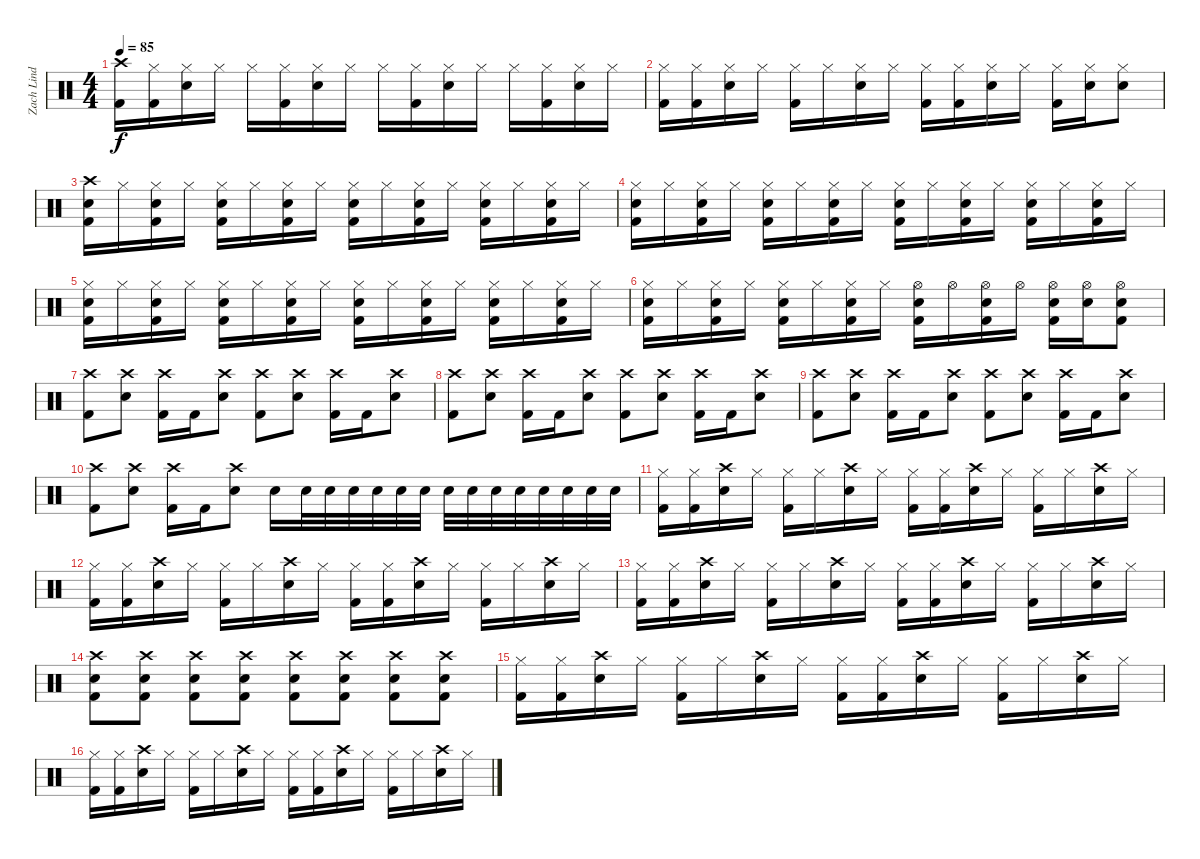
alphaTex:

\track ("Zach Lind" "Zach Lind") {instrument percussion}
\staff {score}
\articulation defaults
\ts (4 4)
\tempo 85
\clef neutral
\ks c
("Crash high (hit)" "Kick (hit) 2").16{dy f} ("Hi-Hat (closed)" "Kick (hit) 2").16 ("Hi-Hat (closed)" "Snare (hit) 2").16 "Hi-Hat (closed)".16 "Hi-Hat (closed)".16 ("Hi-Hat (closed)" "Kick (hit) 2").16 ("Hi-Hat (closed)" "Snare (hit) 2").16 "Hi-Hat (closed)".16 "Hi-Hat (closed)".16 ("Hi-Hat (closed)" "Kick (hit) 2").16 ("Hi-Hat (closed)" "Snare (hit) 2").16 "Hi-Hat (closed)".16 "Hi-Hat (closed)".16 ("Hi-Hat (closed)" "Kick (hit) 2").16 ("Hi-Hat (closed)" "Snare (hit) 2").16 "Hi-Hat (closed)".16 |
("Hi-Hat (closed)" "Kick (hit) 2").16 ("Hi-Hat (closed)" "Kick (hit) 2").16 ("Hi-Hat (closed)" "Snare (hit) 2").16 "Hi-Hat (closed)".16 ("Hi-Hat (closed)" "Kick (hit) 2").16 "Hi-Hat (closed)".16 ("Hi-Hat (closed)" "Snare (hit) 2").16 "Hi-Hat (closed)".16 ("Hi-Hat (closed)" "Kick (hit) 2").16 ("Hi-Hat (closed)" "Kick (hit) 2").16 ("Hi-Hat (closed)" "Snare (hit) 2").16 "Hi-Hat (closed)".16 ("Hi-Hat (closed)" "Kick (hit) 2").16 ("Hi-Hat (closed)" "Snare (hit) 2").16 ("Hi-Hat (closed)" "Snare (hit) 2").8 |
("Crash high (hit)" "Snare (hit) 2" "Kick (hit) 2").16 "Hi-Hat (closed)".16 ("Hi-Hat (closed)" "Snare (hit) 2" "Kick (hit) 2").16 "Hi-Hat (closed)".16 ("Hi-Hat (closed)" "Snare (hit) 2" "Kick (hit) 2").16 "Hi-Hat (closed)".16 ("Hi-Hat (closed)" "Snare (hit) 2" "Kick (hit) 2").16 "Hi-Hat (closed)".16 ("Hi-Hat (closed)" "Snare (hit) 2" "Kick (hit) 2").16 "Hi-Hat (closed)".16 ("Hi-Hat (closed)" "Snare (hit) 2" "Kick (hit) 2").16 "Hi-Hat (closed)".16 ("Hi-Hat (closed)" "Snare (hit) 2" "Kick (hit) 2").16 "Hi-Hat (closed)".16 ("Hi-Hat (closed)" "Snare (hit) 2" "Kick (hit) 2").16 "Hi-Hat (closed)".16 |
("Hi-Hat (closed)" "Snare (hit) 2" "Kick (hit) 2").16 "Hi-Hat (closed)".16 ("Hi-Hat (closed)" "Snare (hit) 2" "Kick (hit) 2").16 "Hi-Hat (closed)".16 ("Hi-Hat (closed)" "Snare (hit) 2" "Kick (hit) 2").16 "Hi-Hat (closed)".16 ("Hi-Hat (closed)" "Snare (hit) 2" "Kick (hit) 2").16 "Hi-Hat (closed)".16 ("Hi-Hat (closed)" "Snare (hit) 2" "Kick (hit) 2").16 "Hi-Hat (closed)".16 ("Hi-Hat (closed)" "Snare (hit) 2" "Kick (hit) 2").16 "Hi-Hat (closed)".16 ("Hi-Hat (closed)" "Snare (hit) 2" "Kick (hit) 2").16 "Hi-Hat (closed)".16 ("Hi-Hat (closed)" "Snare (hit) 2" "Kick (hit) 2").16 "Hi-Hat (closed)".16 |
("Hi-Hat (closed)" "Snare (hit) 2" "Kick (hit) 2").16 "Hi-Hat (closed)".16 ("Hi-Hat (closed)" "Snare (hit) 2" "Kick (hit) 2").16 "Hi-Hat (closed)".16 ("Hi-Hat (closed)" "Snare (hit) 2" "Kick (hit) 2").16 "Hi-Hat (closed)".16 ("Hi-Hat (closed)" "Snare (hit) 2" "Kick (hit) 2").16 "Hi-Hat (closed)".16 ("Hi-Hat (closed)" "Snare (hit) 2" "Kick (hit) 2").16 "Hi-Hat (closed)".16 ("Hi-Hat (closed)" "Snare (hit) 2" "Kick (hit) 2").16 "Hi-Hat (closed)".16 ("Hi-Hat (closed)" "Snare (hit) 2" "Kick (hit) 2").16 "Hi-Hat (closed)".16 ("Hi-Hat (closed)" "Snare (hit) 2" "Kick (hit) 2").16 "Hi-Hat (closed)".16 |
("Hi-Hat (closed)" "Snare (hit) 2" "Kick (hit) 2").16 "Hi-Hat (closed)".16 ("Hi-Hat (closed)" "Snare (hit) 2" "Kick (hit) 2").16 "Hi-Hat (closed)".16 ("Hi-Hat (closed)" "Snare (hit) 2" "Kick (hit) 2").16 "Hi-Hat (closed)".16 ("Hi-Hat (closed)" "Snare (hit) 2" "Kick (hit) 2").16 "Hi-Hat (closed)".16 ("Hi-Hat (open)" "Snare (hit) 2" "Kick (hit) 2").16 "Hi-Hat (open)".16 ("Hi-Hat (open)" "Snare (hit) 2" "Kick (hit) 2").16 "Hi-Hat (open)".16 ("Hi-Hat (open)" "Snare (hit) 2" "Kick (hit) 2").16 ("Hi-Hat (open)" "Snare (hit) 2").16 ("Hi-Hat (open)" "Snare (hit) 2" "Kick (hit) 2").8 |
("Crash high (hit)" "Kick (hit) 2").8 ("Crash high (hit)" "Snare (hit) 2").8 ("Crash high (hit)" "Kick (hit) 2").16 "Kick (hit) 2".16 ("Crash high (hit)" "Snare (hit) 2").8 ("Crash high (hit)" "Kick (hit) 2").8 ("Crash high (hit)" "Snare (hit) 2").8 ("Crash high (hit)" "Kick (hit) 2").16 "Kick (hit) 2".16 ("Crash high (hit)" "Snare (hit) 2").8 |
("Crash high (hit)" "Kick (hit) 2").8 ("Crash high (hit)" "Snare (hit) 2").8 ("Crash high (hit)" "Kick (hit) 2").16 "Kick (hit) 2".16 ("Crash high (hit)" "Snare (hit) 2").8 ("Crash high (hit)" "Kick (hit) 2").8 ("Crash high (hit)" "Snare (hit) 2").8 ("Crash high (hit)" "Kick (hit) 2").16 "Kick (hit) 2".16 ("Crash high (hit)" "Snare (hit) 2").8 |
("Crash high (hit)" "Kick (hit) 2").8 ("Crash high (hit)" "Snare (hit) 2").8 ("Crash high (hit)" "Kick (hit) 2").16 "Kick (hit) 2".16 ("Crash high (hit)" "Snare (hit) 2").8 ("Crash high (hit)" "Kick (hit) 2").8 ("Crash high (hit)" "Snare (hit) 2").8 ("Crash high (hit)" "Kick (hit) 2").16 "Kick (hit) 2".16 ("Crash high (hit)" "Snare (hit) 2").8 |
("Crash high (hit)" "Kick (hit) 2").8 ("Crash high (hit)" "Snare (hit) 2").8 ("Crash high (hit)" "Kick (hit) 2").16 "Kick (hit) 2".16 ("Crash high (hit)" "Snare (hit) 2").8 "Snare (hit) 2".16 "Snare (hit) 2".32 "Snare (hit) 2".32 "Snare (hit) 2".32 "Snare (hit) 2".32 "Snare (hit) 2".32 "Snare (hit) 2".32 "Snare (hit) 2".32 "Snare (hit) 2".32 "Snare (hit) 2".32 "Snare (hit) 2".32 "Snare (hit) 2".32 "Snare (hit) 2".32 "Snare (hit) 2".32 "Snare (hit) 2".32 |
("Hi-Hat (closed)" "Kick (hit) 2").16 ("Hi-Hat (closed)" "Kick (hit) 2").16 ("Crash high (hit)" "Snare (hit) 2").16 "Hi-Hat (closed)".16 ("Hi-Hat (closed)" "Kick (hit) 2").16 "Hi-Hat (closed)".16 ("Crash high (hit)" "Snare (hit) 2").16 "Hi-Hat (closed)".16 ("Hi-Hat (closed)" "Kick (hit) 2").16 ("Hi-Hat (closed)" "Kick (hit) 2").16 ("Crash high (hit)" "Snare (hit) 2").16 "Hi-Hat (closed)".16 ("Hi-Hat (closed)" "Kick (hit) 2").16 "Hi-Hat (closed)".16 ("Crash high (hit)" "Snare (hit) 2").16 "Hi-Hat (closed)".16 |
("Hi-Hat (closed)" "Kick (hit) 2").16 ("Hi-Hat (closed)" "Kick (hit) 2").16 ("Crash high (hit)" "Snare (hit) 2").16 "Hi-Hat (closed)".16 ("Hi-Hat (closed)" "Kick (hit) 2").16 "Hi-Hat (closed)".16 ("Crash high (hit)" "Snare (hit) 2").16 "Hi-Hat (closed)".16 ("Hi-Hat (closed)" "Kick (hit) 2").16 ("Hi-Hat (closed)" "Kick (hit) 2").16 ("Crash high (hit)" "Snare (hit) 2").16 "Hi-Hat (closed)".16 ("Hi-Hat (closed)" "Kick (hit) 2").16 "Hi-Hat (closed)".16 ("Crash high (hit)" "Snare (hit) 2").16 "Hi-Hat (closed)".16 |
("Hi-Hat (closed)" "Kick (hit) 2").16 ("Hi-Hat (closed)" "Kick (hit) 2").16 ("Crash high (hit)" "Snare (hit) 2").16 "Hi-Hat (closed)".16 ("Hi-Hat (closed)" "Kick (hit) 2").16 "Hi-Hat (closed)".16 ("Crash high (hit)" "Snare (hit) 2").16 "Hi-Hat (closed)".16 ("Hi-Hat (closed)" "Kick (hit) 2").16 ("Hi-Hat (closed)" "Kick (hit) 2").16 ("Crash high (hit)" "Snare (hit) 2").16 "Hi-Hat (closed)".16 ("Hi-Hat (closed)" "Kick (hit) 2").16 "Hi-Hat (closed)".16 ("Crash high (hit)" "Snare (hit) 2").16 "Hi-Hat (closed)".16 |
("Crash high (hit)" "Snare (hit) 2" "Kick (hit) 2").8 ("Crash high (hit)" "Snare (hit) 2" "Kick (hit) 2").8 ("Crash high (hit)" "Snare (hit) 2" "Kick (hit) 2").8 ("Crash high (hit)" "Snare (hit) 2" "Kick (hit) 2").8 ("Crash high (hit)" "Snare (hit) 2" "Kick (hit) 2").8 ("Crash high (hit)" "Snare (hit) 2" "Kick (hit) 2").8 ("Crash high (hit)" "Snare (hit) 2" "Kick (hit) 2").8 ("Crash high (hit)" "Snare (hit) 2" "Kick (hit) 2").8 |
("Hi-Hat (closed)" "Kick (hit) 2").16 ("Hi-Hat (closed)" "Kick (hit) 2").16 ("Crash high (hit)" "Snare (hit) 2").16 "Hi-Hat (closed)".16 ("Hi-Hat (closed)" "Kick (hit) 2").16 "Hi-Hat (closed)".16 ("Crash high (hit)" "Snare (hit) 2").16 "Hi-Hat (closed)".16 ("Hi-Hat (closed)" "Kick (hit) 2").16 ("Hi-Hat (closed)" "Kick (hit) 2").16 ("Crash high (hit)" "Snare (hit) 2").16 "Hi-Hat (closed)".16 ("Hi-Hat (closed)" "Kick (hit) 2").16 "Hi-Hat (closed)".16 ("Crash high (hit)" "Snare (hit) 2").16 "Hi-Hat (closed)".16 |
("Hi-Hat (closed)" "Kick (hit) 2").16 ("Hi-Hat (closed)" "Kick (hit) 2").16 ("Crash high (hit)" "Snare (hit) 2").16 "Hi-Hat (closed)".16 ("Hi-Hat (closed)" "Kick (hit) 2").16 "Hi-Hat (closed)".16 ("Crash high (hit)" "Snare (hit) 2").16 "Hi-Hat (closed)".16 ("Hi-Hat (closed)" "Kick (hit) 2").16 ("Hi-Hat (closed)" "Kick (hit) 2").16 ("Crash high (hit)" "Snare (hit) 2").16 "Hi-Hat (closed)".16 ("Hi-Hat (closed)" "Kick (hit) 2").16 "Hi-Hat (closed)".16 ("Crash high (hit)" "Snare (hit) 2").16 "Hi-Hat (closed)".16
